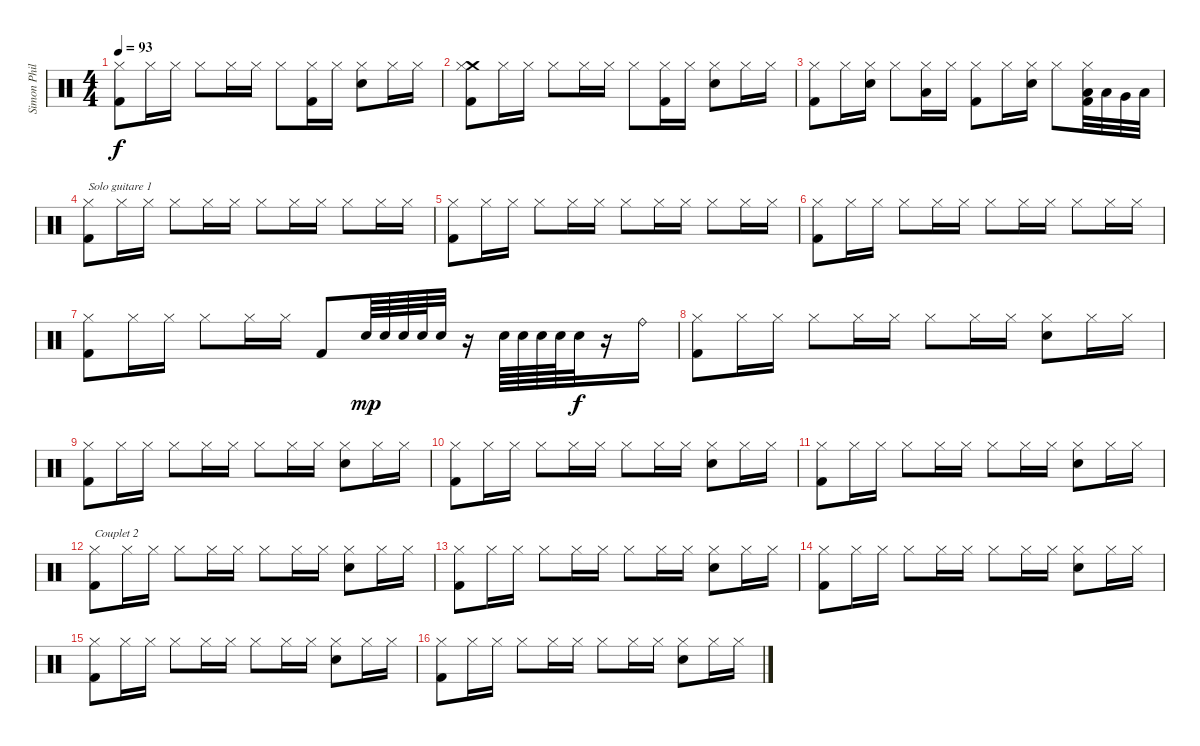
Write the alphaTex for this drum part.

\track ("Simon Phillips" "Simon Phil") {instrument percussion}
\staff {score}
\articulation defaults
\ts (4 4)
\tempo 93
\clef neutral
\ks c
("Hi-Hat (closed)" "Kick (hit) 2").8{dy f} "Hi-Hat (closed)".16 "Hi-Hat (closed)".16 "Hi-Hat (closed)".8 "Hi-Hat (closed)".16 "Hi-Hat (closed)".16 "Hi-Hat (closed)".8 ("Hi-Hat (closed)" "Kick (hit) 2").16 "Hi-Hat (closed)".16 ("Electric Snare (hit)" "Hi-Hat (closed)").8 "Hi-Hat (closed)".16 "Hi-Hat (closed)".16 |
("Crash medium (hit)" "Hi-Hat (closed)" "Kick (hit) 2").8 "Hi-Hat (closed)".16 "Hi-Hat (closed)".16 "Hi-Hat (closed)".8 "Hi-Hat (closed)".16 "Hi-Hat (closed)".16 "Hi-Hat (closed)".8 ("Hi-Hat (closed)" "Kick (hit) 2").16 "Hi-Hat (closed)".16 ("Electric Snare (hit)" "Hi-Hat (closed)").8 "Hi-Hat (closed)".16 "Hi-Hat (closed)".16 |
("Hi-Hat (closed)" "Kick (hit) 2").8 "Hi-Hat (closed)".16 ("Electric Snare (hit)" "Hi-Hat (closed)").16 "Hi-Hat (closed)".8 ("Low Tom (hit)" "Hi-Hat (closed)").16 "Hi-Hat (closed)".16 ("Hi-Hat (closed)" "Kick (hit) 2").8 "Hi-Hat (closed)".16 ("Electric Snare (hit)" "Hi-Hat (closed)").16 "Hi-Hat (closed)".8 ("Low Tom (hit)" "Hi-Hat (closed)" "Kick (hit) 2").32 "Low Tom (hit)".32 "Very Low Tom (hit)".32 "Low Floor Tom (hit)".32 |
("Hi-Hat (closed)" "Kick (hit) 2").8{txt "Solo guitare 1"} "Hi-Hat (closed)".16 "Hi-Hat (closed)".16 "Hi-Hat (closed)".8 "Hi-Hat (closed)".16 "Hi-Hat (closed)".16 "Hi-Hat (closed)".8 "Hi-Hat (closed)".16 "Hi-Hat (closed)".16 "Hi-Hat (closed)".8 "Hi-Hat (closed)".16 "Hi-Hat (closed)".16 |
("Hi-Hat (closed)" "Kick (hit) 2").8 "Hi-Hat (closed)".16 "Hi-Hat (closed)".16 "Hi-Hat (closed)".8 "Hi-Hat (closed)".16 "Hi-Hat (closed)".16 "Hi-Hat (closed)".8 "Hi-Hat (closed)".16 "Hi-Hat (closed)".16 "Hi-Hat (closed)".8 "Hi-Hat (closed)".16 "Hi-Hat (closed)".16 |
("Hi-Hat (closed)" "Kick (hit) 2").8 "Hi-Hat (closed)".16 "Hi-Hat (closed)".16 "Hi-Hat (closed)".8 "Hi-Hat (closed)".16 "Hi-Hat (closed)".16 "Hi-Hat (closed)".8 "Hi-Hat (closed)".16 "Hi-Hat (closed)".16 "Hi-Hat (closed)".8 "Hi-Hat (closed)".16 "Hi-Hat (closed)".16 |
("Hi-Hat (closed)" "Kick (hit) 2").8 "Hi-Hat (closed)".16 "Hi-Hat (closed)".16 "Hi-Hat (closed)".8 "Hi-Hat (closed)".16 "Hi-Hat (closed)".16 "Kick (hit) 2".8 "Electric Snare (hit)".64{dy mp} "Electric Snare (hit)".64 "Electric Snare (hit)".64 "Electric Snare (hit)".64 "Electric Snare (hit)".32 r.16 "Electric Snare (hit)".64 "Electric Snare (hit)".64 "Electric Snare (hit)".64 "Electric Snare (hit)".64 "Electric Snare (hit)".32{dy f} r.16 "Ride (bell)".16 |
("Hi-Hat (closed)" "Kick (hit) 2").8 "Hi-Hat (closed)".16 "Hi-Hat (closed)".16 "Hi-Hat (closed)".8 "Hi-Hat (closed)".16 "Hi-Hat (closed)".16 "Hi-Hat (closed)".8 "Hi-Hat (closed)".16 "Hi-Hat (closed)".16 ("Electric Snare (hit)" "Hi-Hat (closed)").8 "Hi-Hat (closed)".16 "Hi-Hat (closed)".16 |
("Hi-Hat (closed)" "Kick (hit) 2").8 "Hi-Hat (closed)".16 "Hi-Hat (closed)".16 "Hi-Hat (closed)".8 "Hi-Hat (closed)".16 "Hi-Hat (closed)".16 "Hi-Hat (closed)".8 "Hi-Hat (closed)".16 "Hi-Hat (closed)".16 ("Electric Snare (hit)" "Hi-Hat (closed)").8 "Hi-Hat (closed)".16 "Hi-Hat (closed)".16 |
("Hi-Hat (closed)" "Kick (hit) 2").8 "Hi-Hat (closed)".16 "Hi-Hat (closed)".16 "Hi-Hat (closed)".8 "Hi-Hat (closed)".16 "Hi-Hat (closed)".16 "Hi-Hat (closed)".8 "Hi-Hat (closed)".16 "Hi-Hat (closed)".16 ("Electric Snare (hit)" "Hi-Hat (closed)").8 "Hi-Hat (closed)".16 "Hi-Hat (closed)".16 |
("Hi-Hat (closed)" "Kick (hit) 2").8 "Hi-Hat (closed)".16 "Hi-Hat (closed)".16 "Hi-Hat (closed)".8 "Hi-Hat (closed)".16 "Hi-Hat (closed)".16 "Hi-Hat (closed)".8 "Hi-Hat (closed)".16 "Hi-Hat (closed)".16 ("Electric Snare (hit)" "Hi-Hat (closed)").8 "Hi-Hat (closed)".16 "Hi-Hat (closed)".16 |
("Hi-Hat (closed)" "Kick (hit) 2").8{txt "Couplet 2"} "Hi-Hat (closed)".16 "Hi-Hat (closed)".16 "Hi-Hat (closed)".8 "Hi-Hat (closed)".16 "Hi-Hat (closed)".16 "Hi-Hat (closed)".8 "Hi-Hat (closed)".16 "Hi-Hat (closed)".16 ("Electric Snare (hit)" "Hi-Hat (closed)").8 "Hi-Hat (closed)".16 "Hi-Hat (closed)".16 |
("Hi-Hat (closed)" "Kick (hit) 2").8 "Hi-Hat (closed)".16 "Hi-Hat (closed)".16 "Hi-Hat (closed)".8 "Hi-Hat (closed)".16 "Hi-Hat (closed)".16 "Hi-Hat (closed)".8 "Hi-Hat (closed)".16 "Hi-Hat (closed)".16 ("Electric Snare (hit)" "Hi-Hat (closed)").8 "Hi-Hat (closed)".16 "Hi-Hat (closed)".16 |
("Hi-Hat (closed)" "Kick (hit) 2").8 "Hi-Hat (closed)".16 "Hi-Hat (closed)".16 "Hi-Hat (closed)".8 "Hi-Hat (closed)".16 "Hi-Hat (closed)".16 "Hi-Hat (closed)".8 "Hi-Hat (closed)".16 "Hi-Hat (closed)".16 ("Electric Snare (hit)" "Hi-Hat (closed)").8 "Hi-Hat (closed)".16 "Hi-Hat (closed)".16 |
("Hi-Hat (closed)" "Kick (hit) 2").8 "Hi-Hat (closed)".16 "Hi-Hat (closed)".16 "Hi-Hat (closed)".8 "Hi-Hat (closed)".16 "Hi-Hat (closed)".16 "Hi-Hat (closed)".8 "Hi-Hat (closed)".16 "Hi-Hat (closed)".16 ("Electric Snare (hit)" "Hi-Hat (closed)").8 "Hi-Hat (closed)".16 "Hi-Hat (closed)".16 |
("Hi-Hat (closed)" "Kick (hit) 2").8 "Hi-Hat (closed)".16 "Hi-Hat (closed)".16 "Hi-Hat (closed)".8 "Hi-Hat (closed)".16 "Hi-Hat (closed)".16 "Hi-Hat (closed)".8 "Hi-Hat (closed)".16 "Hi-Hat (closed)".16 ("Electric Snare (hit)" "Hi-Hat (closed)").8 "Hi-Hat (closed)".16 "Hi-Hat (closed)".16
